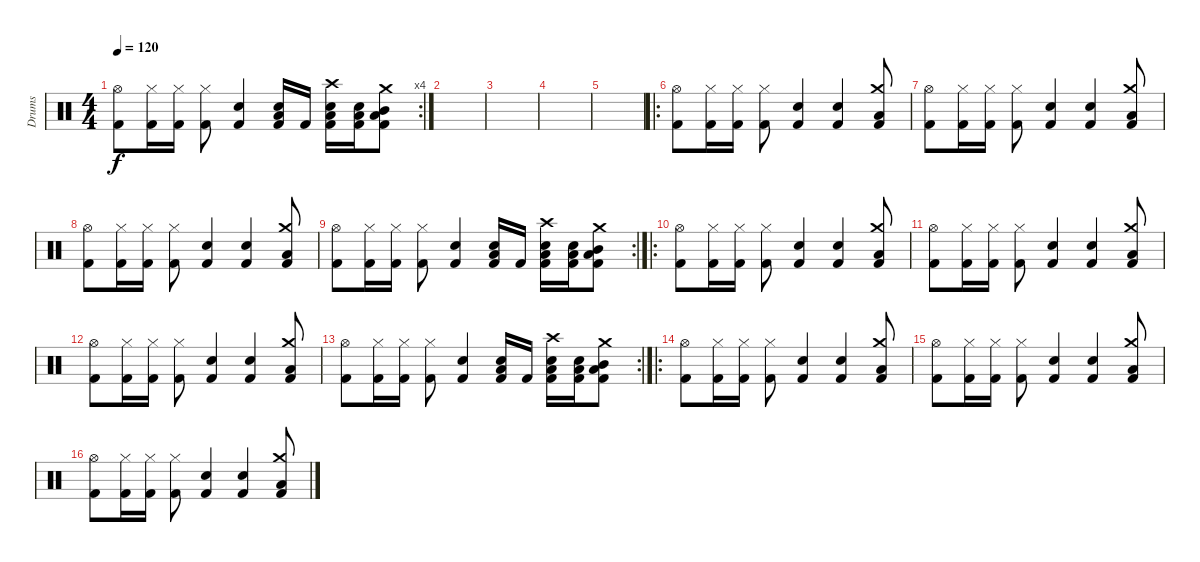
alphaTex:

\track ("Drums" "Drums") {instrument percussion}
\staff {score}
\articulation defaults
\rc 4
\ts (4 4)
\tempo 120
\clef neutral
\ks c
("Hi-Hat (open)" "Kick (hit) 2").8{dy f} ("Hi-Hat (closed)" "Kick (hit) 2").16 ("Hi-Hat (closed)" "Kick (hit) 2").16 ("Hi-Hat (closed)" "Kick (hit) 2").8 ("Electric Snare (hit)" "Kick (hit) 2").4 ("Electric Snare (hit)" "Low Tom (hit)" "Kick (hit) 2").16 "Kick (hit) 2".16 ("Crash high (hit)" "Electric Snare (hit)" "Low Tom (hit)" "Kick (hit) 2").16 ("Electric Snare (hit)" "Low Tom (hit)" "Kick (hit) 2").16 ("Crash medium (hit)" "Low Floor Tom (hit)" "Mid Tom (hit)" "Kick (hit) 2").8 |
|
|
|
|
\ro
("Hi-Hat (open)" "Kick (hit) 2").8 ("Hi-Hat (closed)" "Kick (hit) 2").16 ("Hi-Hat (closed)" "Kick (hit) 2").16 ("Hi-Hat (closed)" "Kick (hit) 2").8 ("Electric Snare (hit)" "Kick (hit) 2").4 ("Electric Snare (hit)" "Kick (hit) 2").4 ("Crash medium (hit)" "Low Floor Tom (hit)" "Kick (hit) 2").8 |
("Hi-Hat (open)" "Kick (hit) 2").8 ("Hi-Hat (closed)" "Kick (hit) 2").16 ("Hi-Hat (closed)" "Kick (hit) 2").16 ("Hi-Hat (closed)" "Kick (hit) 2").8 ("Electric Snare (hit)" "Kick (hit) 2").4 ("Electric Snare (hit)" "Kick (hit) 2").4 ("Crash medium (hit)" "Low Floor Tom (hit)" "Kick (hit) 2").8 |
("Hi-Hat (open)" "Kick (hit) 2").8 ("Hi-Hat (closed)" "Kick (hit) 2").16 ("Hi-Hat (closed)" "Kick (hit) 2").16 ("Hi-Hat (closed)" "Kick (hit) 2").8 ("Electric Snare (hit)" "Kick (hit) 2").4 ("Electric Snare (hit)" "Kick (hit) 2").4 ("Crash medium (hit)" "Low Floor Tom (hit)" "Kick (hit) 2").8 |
\rc 2
("Hi-Hat (open)" "Kick (hit) 2").8 ("Hi-Hat (closed)" "Kick (hit) 2").16 ("Hi-Hat (closed)" "Kick (hit) 2").16 ("Hi-Hat (closed)" "Kick (hit) 2").8 ("Electric Snare (hit)" "Kick (hit) 2").4 ("Electric Snare (hit)" "Low Tom (hit)" "Kick (hit) 2").16 "Kick (hit) 2".16 ("Crash high (hit)" "Electric Snare (hit)" "Low Tom (hit)" "Kick (hit) 2").16 ("Electric Snare (hit)" "Low Tom (hit)" "Kick (hit) 2").16 ("Crash medium (hit)" "Low Floor Tom (hit)" "Mid Tom (hit)" "Kick (hit) 2").8 |
\ro
("Hi-Hat (open)" "Kick (hit) 2").8 ("Hi-Hat (closed)" "Kick (hit) 2").16 ("Hi-Hat (closed)" "Kick (hit) 2").16 ("Hi-Hat (closed)" "Kick (hit) 2").8 ("Electric Snare (hit)" "Kick (hit) 2").4 ("Electric Snare (hit)" "Kick (hit) 2").4 ("Crash medium (hit)" "Low Floor Tom (hit)" "Kick (hit) 2").8 |
("Hi-Hat (open)" "Kick (hit) 2").8 ("Hi-Hat (closed)" "Kick (hit) 2").16 ("Hi-Hat (closed)" "Kick (hit) 2").16 ("Hi-Hat (closed)" "Kick (hit) 2").8 ("Electric Snare (hit)" "Kick (hit) 2").4 ("Electric Snare (hit)" "Kick (hit) 2").4 ("Crash medium (hit)" "Low Floor Tom (hit)" "Kick (hit) 2").8 |
("Hi-Hat (open)" "Kick (hit) 2").8 ("Hi-Hat (closed)" "Kick (hit) 2").16 ("Hi-Hat (closed)" "Kick (hit) 2").16 ("Hi-Hat (closed)" "Kick (hit) 2").8 ("Electric Snare (hit)" "Kick (hit) 2").4 ("Electric Snare (hit)" "Kick (hit) 2").4 ("Crash medium (hit)" "Low Floor Tom (hit)" "Kick (hit) 2").8 |
\rc 2
("Hi-Hat (open)" "Kick (hit) 2").8 ("Hi-Hat (closed)" "Kick (hit) 2").16 ("Hi-Hat (closed)" "Kick (hit) 2").16 ("Hi-Hat (closed)" "Kick (hit) 2").8 ("Electric Snare (hit)" "Kick (hit) 2").4 ("Electric Snare (hit)" "Low Tom (hit)" "Kick (hit) 2").16 "Kick (hit) 2".16 ("Crash high (hit)" "Electric Snare (hit)" "Low Tom (hit)" "Kick (hit) 2").16 ("Electric Snare (hit)" "Low Tom (hit)" "Kick (hit) 2").16 ("Crash medium (hit)" "Low Floor Tom (hit)" "Mid Tom (hit)" "Kick (hit) 2").8 |
\ro
("Hi-Hat (open)" "Kick (hit) 2").8 ("Hi-Hat (closed)" "Kick (hit) 2").16 ("Hi-Hat (closed)" "Kick (hit) 2").16 ("Hi-Hat (closed)" "Kick (hit) 2").8 ("Electric Snare (hit)" "Kick (hit) 2").4 ("Electric Snare (hit)" "Kick (hit) 2").4 ("Crash medium (hit)" "Low Floor Tom (hit)" "Kick (hit) 2").8 |
("Hi-Hat (open)" "Kick (hit) 2").8 ("Hi-Hat (closed)" "Kick (hit) 2").16 ("Hi-Hat (closed)" "Kick (hit) 2").16 ("Hi-Hat (closed)" "Kick (hit) 2").8 ("Electric Snare (hit)" "Kick (hit) 2").4 ("Electric Snare (hit)" "Kick (hit) 2").4 ("Crash medium (hit)" "Low Floor Tom (hit)" "Kick (hit) 2").8 |
("Hi-Hat (open)" "Kick (hit) 2").8 ("Hi-Hat (closed)" "Kick (hit) 2").16 ("Hi-Hat (closed)" "Kick (hit) 2").16 ("Hi-Hat (closed)" "Kick (hit) 2").8 ("Electric Snare (hit)" "Kick (hit) 2").4 ("Electric Snare (hit)" "Kick (hit) 2").4 ("Crash medium (hit)" "Low Floor Tom (hit)" "Kick (hit) 2").8
